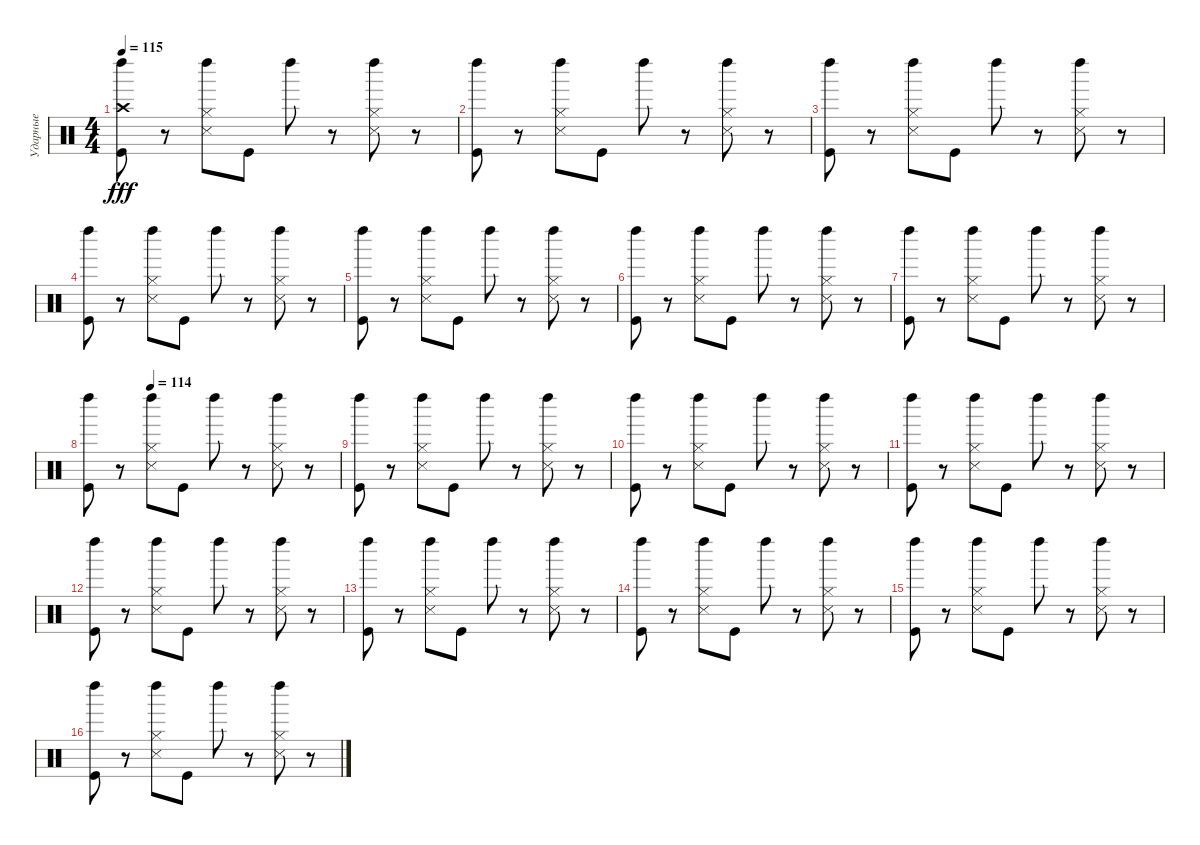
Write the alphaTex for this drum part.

\track ("Ударные" "Ударные") {instrument percussion}
\staff {score}
\articulation defaults
\ts (4 4)
\tempo 115
\clef neutral
\ks c
("Kick (hit)" "Left Maraca (hit)" "Crash high (hit)").8{dy fff} r.8 ("Hi-Hat (closed)" "Snare (side stick) 3" "Left Maraca (hit)").8 "Kick (hit)".8 "Left Maraca (hit)".8 r.8 ("Hi-Hat (closed)" "Snare (side stick) 3" "Left Maraca (hit)").8 r.8 |
("Kick (hit)" "Left Maraca (hit)").8 r.8 ("Snare (side stick) 3" "Hi-Hat (closed)" "Left Maraca (hit)").8 "Kick (hit)".8 "Left Maraca (hit)".8 r.8 ("Hi-Hat (closed)" "Snare (side stick) 3" "Left Maraca (hit)").8 r.8 |
("Kick (hit)" "Left Maraca (hit)").8 r.8 ("Hi-Hat (closed)" "Snare (side stick) 3" "Left Maraca (hit)").8 "Kick (hit)".8 "Left Maraca (hit)".8 r.8 ("Hi-Hat (closed)" "Snare (side stick) 3" "Left Maraca (hit)").8 r.8 |
("Kick (hit)" "Left Maraca (hit)").8 r.8 ("Hi-Hat (closed)" "Snare (side stick) 3" "Left Maraca (hit)").8 "Kick (hit)".8 "Left Maraca (hit)".8 r.8 ("Hi-Hat (closed)" "Snare (side stick) 3" "Left Maraca (hit)").8 r.8 |
("Kick (hit)" "Left Maraca (hit)").8 r.8 ("Hi-Hat (closed)" "Snare (side stick) 3" "Left Maraca (hit)").8 "Kick (hit)".8 "Left Maraca (hit)".8 r.8 ("Hi-Hat (closed)" "Snare (side stick) 3" "Left Maraca (hit)").8 r.8 |
("Kick (hit)" "Left Maraca (hit)").8 r.8 ("Hi-Hat (closed)" "Snare (side stick) 3" "Left Maraca (hit)").8 "Kick (hit)".8 "Left Maraca (hit)".8 r.8 ("Hi-Hat (closed)" "Snare (side stick) 3" "Left Maraca (hit)").8 r.8 |
("Kick (hit)" "Left Maraca (hit)").8 r.8 ("Hi-Hat (closed)" "Snare (side stick) 3" "Left Maraca (hit)").8 "Kick (hit)".8 "Left Maraca (hit)".8 r.8 ("Hi-Hat (closed)" "Snare (side stick) 3" "Left Maraca (hit)").8 r.8 |
\tempo (114 0.25)
("Kick (hit)" "Left Maraca (hit)").8 r.8 ("Hi-Hat (closed)" "Snare (side stick) 3" "Left Maraca (hit)").8 "Kick (hit)".8 "Left Maraca (hit)".8 r.8 ("Hi-Hat (closed)" "Snare (side stick) 3" "Left Maraca (hit)").8 r.8 |
("Kick (hit)" "Left Maraca (hit)").8 r.8 ("Hi-Hat (closed)" "Snare (side stick) 3" "Left Maraca (hit)").8 "Kick (hit)".8 "Left Maraca (hit)".8 r.8 ("Snare (side stick) 3" "Hi-Hat (closed)" "Left Maraca (hit)").8 r.8 |
("Kick (hit)" "Left Maraca (hit)").8 r.8 ("Hi-Hat (closed)" "Snare (side stick) 3" "Left Maraca (hit)").8 "Kick (hit)".8 "Left Maraca (hit)".8 r.8 ("Hi-Hat (closed)" "Snare (side stick) 3" "Left Maraca (hit)").8 r.8 |
("Kick (hit)" "Left Maraca (hit)").8 r.8 ("Snare (side stick) 3" "Hi-Hat (closed)" "Left Maraca (hit)").8 "Kick (hit)".8 "Left Maraca (hit)".8 r.8 ("Snare (side stick) 3" "Hi-Hat (closed)" "Left Maraca (hit)").8 r.8 |
("Kick (hit)" "Left Maraca (hit)").8 r.8 ("Hi-Hat (closed)" "Snare (side stick) 3" "Left Maraca (hit)").8 "Kick (hit)".8 "Left Maraca (hit)".8 r.8 ("Hi-Hat (closed)" "Snare (side stick) 3" "Left Maraca (hit)").8 r.8 |
("Kick (hit)" "Left Maraca (hit)").8 r.8 ("Snare (side stick) 3" "Hi-Hat (closed)" "Left Maraca (hit)").8 "Kick (hit)".8 "Left Maraca (hit)".8 r.8 ("Snare (side stick) 3" "Hi-Hat (closed)" "Left Maraca (hit)").8 r.8 |
("Kick (hit)" "Left Maraca (hit)").8 r.8 ("Snare (side stick) 3" "Hi-Hat (closed)" "Left Maraca (hit)").8 "Kick (hit)".8 "Left Maraca (hit)".8 r.8 ("Hi-Hat (closed)" "Snare (side stick) 3" "Left Maraca (hit)").8 r.8 |
("Kick (hit)" "Left Maraca (hit)").8 r.8 ("Snare (side stick) 3" "Hi-Hat (closed)" "Left Maraca (hit)").8 "Kick (hit)".8 "Left Maraca (hit)".8 r.8 ("Snare (side stick) 3" "Hi-Hat (closed)" "Left Maraca (hit)").8 r.8 |
("Kick (hit)" "Left Maraca (hit)").8 r.8 ("Snare (side stick) 3" "Hi-Hat (closed)" "Left Maraca (hit)").8 "Kick (hit)".8 "Left Maraca (hit)".8 r.8 ("Snare (side stick) 3" "Hi-Hat (closed)" "Left Maraca (hit)").8 r.8
